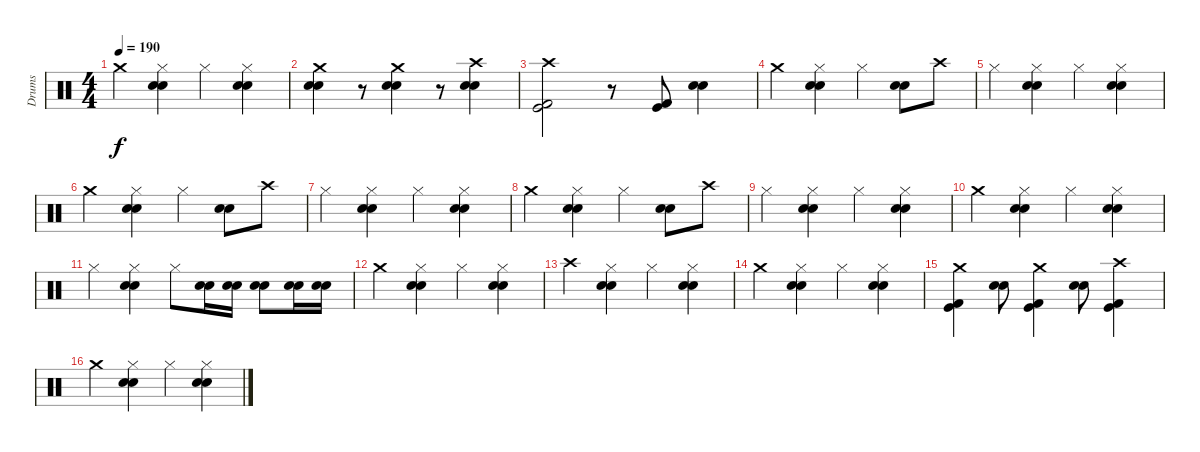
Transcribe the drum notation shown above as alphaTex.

\track ("Drums" "Drums") {instrument percussion}
\staff {score}
\articulation defaults
\ts (4 4)
\tempo 190
\clef neutral
\ks c "Crash medium (hit)".4{dy f}
("Hi-Hat (closed)" "Electric Snare (hit)" "Snare (hit) 2").4 "Hi-Hat (closed)".4 ("Hi-Hat (closed)" "Electric Snare (hit)" "Snare (hit) 2").4 |
("Crash medium (hit)" "Electric Snare (hit)" "Snare (hit) 2").4 r.8 ("Crash medium (hit)" "Electric Snare (hit)" "Snare (hit) 2").4 r.8 ("Crash high (hit)" "Electric Snare (hit)" "Snare (hit) 2").4 |
("Crash high (hit)" "Kick (hit) 2" "Kick (hit)").2 r.8 ("Kick (hit) 2" "Kick (hit)").8 ("Electric Snare (hit)" "Snare (hit) 2").4 |
"Crash medium (hit)".4 ("Hi-Hat (closed)" "Electric Snare (hit)" "Snare (hit) 2").4 "Hi-Hat (closed)".4 ("Electric Snare (hit)" "Snare (hit) 2").8 "Crash high (hit)".8 |
"Hi-Hat (closed)".4 ("Hi-Hat (closed)" "Electric Snare (hit)" "Snare (hit) 2").4 "Hi-Hat (closed)".4 ("Hi-Hat (closed)" "Electric Snare (hit)" "Snare (hit) 2").4 |
"Crash medium (hit)".4 ("Hi-Hat (closed)" "Electric Snare (hit)" "Snare (hit) 2").4 "Hi-Hat (closed)".4 ("Electric Snare (hit)" "Snare (hit) 2").8 "Crash high (hit)".8 |
"Hi-Hat (closed)".4 ("Hi-Hat (closed)" "Electric Snare (hit)" "Snare (hit) 2").4 "Hi-Hat (closed)".4 ("Hi-Hat (closed)" "Electric Snare (hit)" "Snare (hit) 2").4 |
"Crash medium (hit)".4 ("Hi-Hat (closed)" "Electric Snare (hit)" "Snare (hit) 2").4 "Hi-Hat (closed)".4 ("Electric Snare (hit)" "Snare (hit) 2").8 "Crash high (hit)".8 |
"Hi-Hat (closed)".4 ("Hi-Hat (closed)" "Electric Snare (hit)" "Snare (hit) 2").4 "Hi-Hat (closed)".4 ("Hi-Hat (closed)" "Electric Snare (hit)" "Snare (hit) 2").4 |
"Crash medium (hit)".4 ("Hi-Hat (closed)" "Electric Snare (hit)" "Snare (hit) 2").4 "Hi-Hat (closed)".4 ("Hi-Hat (closed)" "Electric Snare (hit)" "Snare (hit) 2").4 |
"Hi-Hat (closed)".4 ("Hi-Hat (closed)" "Electric Snare (hit)" "Snare (hit) 2").4 "Hi-Hat (closed)".8 ("Electric Snare (hit)" "Snare (hit) 2").16 ("Electric Snare (hit)" "Snare (hit) 2").16 ("Electric Snare (hit)" "Snare (hit) 2").8 ("Electric Snare (hit)" "Snare (hit) 2").16 ("Electric Snare (hit)" "Snare (hit) 2").16 |
"Crash medium (hit)".4 ("Hi-Hat (closed)" "Electric Snare (hit)" "Snare (hit) 2").4 "Hi-Hat (closed)".4 ("Hi-Hat (closed)" "Electric Snare (hit)" "Snare (hit) 2").4 |
"Crash high (hit)".4 ("Hi-Hat (closed)" "Electric Snare (hit)" "Snare (hit) 2").4 "Hi-Hat (closed)".4 ("Hi-Hat (closed)" "Electric Snare (hit)" "Snare (hit) 2").4 |
"Crash medium (hit)".4 ("Hi-Hat (closed)" "Electric Snare (hit)" "Snare (hit) 2").4 "Hi-Hat (closed)".4 ("Hi-Hat (closed)" "Electric Snare (hit)" "Snare (hit) 2").4 |
("Crash medium (hit)" "Kick (hit) 2" "Kick (hit)").4 ("Electric Snare (hit)" "Snare (hit) 2").8 ("Crash medium (hit)" "Kick (hit) 2" "Kick (hit)").4 ("Electric Snare (hit)" "Snare (hit) 2").8 ("Crash high (hit)" "Kick (hit) 2" "Kick (hit)").4 |
"Crash medium (hit)".4 ("Hi-Hat (closed)" "Electric Snare (hit)" "Snare (hit) 2").4 "Hi-Hat (closed)".4 ("Hi-Hat (closed)" "Electric Snare (hit)" "Snare (hit) 2").4
